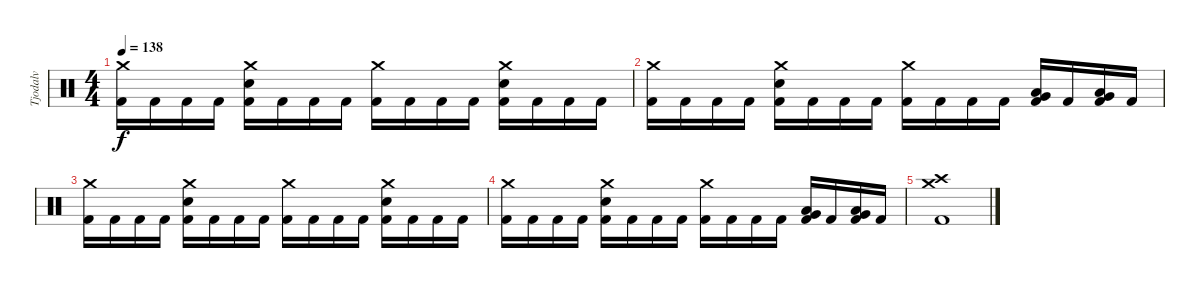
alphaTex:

\track ("Tjodalv" "Tjodalv") {instrument percussion}
\staff {score}
\articulation defaults
\ts (4 4)
\tempo 138
\clef neutral
\ks c
("Crash medium (hit)" "Kick (hit) 2").16{dy f} "Kick (hit) 2".16 "Kick (hit) 2".16 "Kick (hit) 2".16 ("Crash medium (hit)" "Snare (hit) 2" "Kick (hit) 2").16 "Kick (hit) 2".16 "Kick (hit) 2".16 "Kick (hit) 2".16 ("Crash medium (hit)" "Kick (hit) 2").16 "Kick (hit) 2".16 "Kick (hit) 2".16 "Kick (hit) 2".16 ("Crash medium (hit)" "Snare (hit) 2" "Kick (hit) 2").16 "Kick (hit) 2".16 "Kick (hit) 2".16 "Kick (hit) 2".16 |
("Crash medium (hit)" "Kick (hit) 2").16 "Kick (hit) 2".16 "Kick (hit) 2".16 "Kick (hit) 2".16 ("Crash medium (hit)" "Snare (hit) 2" "Kick (hit) 2").16 "Kick (hit) 2".16 "Kick (hit) 2".16 "Kick (hit) 2".16 ("Crash medium (hit)" "Kick (hit) 2").16 "Kick (hit) 2".16 "Kick (hit) 2".16 "Kick (hit) 2".16 ("Low Tom (hit)" "Very Low Tom (hit)" "Kick (hit) 2").16 "Kick (hit) 2".16 ("Low Floor Tom (hit)" "Very Low Tom (hit)" "Kick (hit) 2").16 "Kick (hit) 2".16 |
("Crash medium (hit)" "Kick (hit) 2").16 "Kick (hit) 2".16 "Kick (hit) 2".16 "Kick (hit) 2".16 ("Crash medium (hit)" "Snare (hit) 2" "Kick (hit) 2").16 "Kick (hit) 2".16 "Kick (hit) 2".16 "Kick (hit) 2".16 ("Crash medium (hit)" "Kick (hit) 2").16 "Kick (hit) 2".16 "Kick (hit) 2".16 "Kick (hit) 2".16 ("Crash medium (hit)" "Snare (hit) 2" "Kick (hit) 2").16 "Kick (hit) 2".16 "Kick (hit) 2".16 "Kick (hit) 2".16 |
("Crash medium (hit)" "Kick (hit) 2").16 "Kick (hit) 2".16 "Kick (hit) 2".16 "Kick (hit) 2".16 ("Crash medium (hit)" "Snare (hit) 2" "Kick (hit) 2").16 "Kick (hit) 2".16 "Kick (hit) 2".16 "Kick (hit) 2".16 ("Crash medium (hit)" "Kick (hit) 2").16 "Kick (hit) 2".16 "Kick (hit) 2".16 "Kick (hit) 2".16 ("Low Tom (hit)" "Very Low Tom (hit)" "Kick (hit) 2").16 "Kick (hit) 2".16 ("Low Floor Tom (hit)" "Very Low Tom (hit)" "Kick (hit) 2").16 "Kick (hit) 2".16 |
("Crash medium (hit)" "Crash high (hit)" "Kick (hit) 2").1
